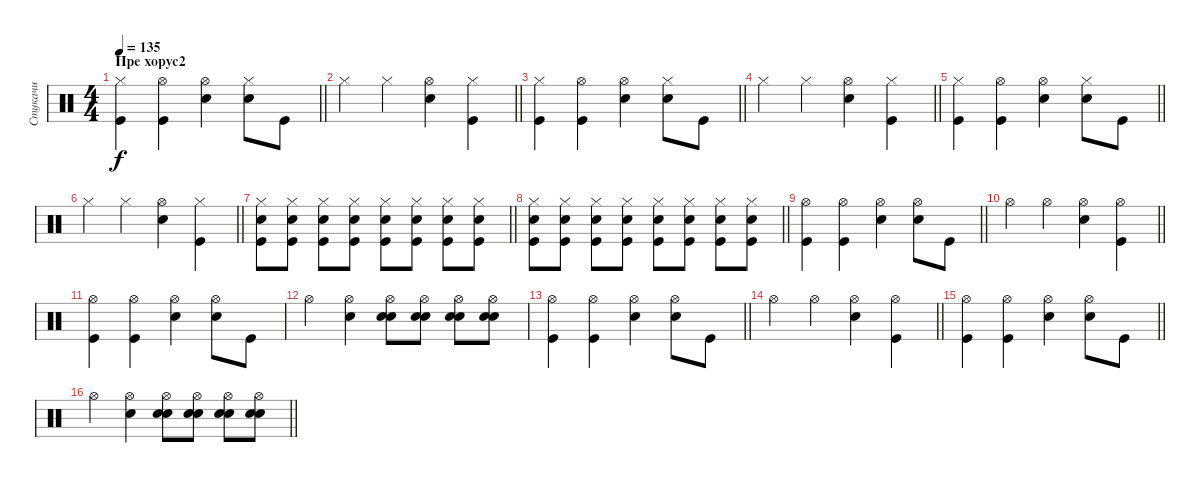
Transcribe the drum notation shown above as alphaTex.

\track ("Стукачи" "Стукачи") {instrument percussion}
\staff {score}
\articulation defaults
\ts (4 4)
\section ("" "Пре хорус2")
\tempo 135
\clef neutral
\barLineRight lightlight
\ks c
("Hi-Hat (closed)" "Kick (hit)").4{dy f} ("Hi-Hat (open)" "Kick (hit)").4 ("Hi-Hat (open)" "Snare (hit) 2").4 ("Hi-Hat (closed)" "Snare (hit) 2").8 "Kick (hit)".8 |
\barLineRight lightlight "Hi-Hat (closed)".4 "Hi-Hat (closed)".4
("Hi-Hat (open)" "Snare (hit) 2").4 ("Hi-Hat (closed)" "Kick (hit)").4 |
\barLineRight lightlight
("Hi-Hat (closed)" "Kick (hit)").4 ("Hi-Hat (open)" "Kick (hit)").4 ("Hi-Hat (open)" "Snare (hit) 2").4 ("Hi-Hat (closed)" "Snare (hit) 2").8 "Kick (hit)".8 |
\barLineRight lightlight "Hi-Hat (closed)".4 "Hi-Hat (closed)".4
("Hi-Hat (open)" "Snare (hit) 2").4 ("Hi-Hat (closed)" "Kick (hit)").4 |
\barLineRight lightlight
("Hi-Hat (closed)" "Kick (hit)").4 ("Hi-Hat (open)" "Kick (hit)").4 ("Hi-Hat (open)" "Snare (hit) 2").4 ("Hi-Hat (closed)" "Snare (hit) 2").8 "Kick (hit)".8 |
\barLineRight lightlight "Hi-Hat (closed)".4{volume 12} "Hi-Hat (closed)".4
("Hi-Hat (open)" "Snare (hit) 2").4 ("Hi-Hat (closed)" "Kick (hit)").4 |
\barLineRight lightlight
("Hi-Hat (closed)" "Snare (hit) 2" "Kick (hit)").8{volume 16} ("Hi-Hat (closed)" "Snare (hit) 2" "Kick (hit)").8 ("Hi-Hat (closed)" "Snare (hit) 2" "Kick (hit)").8 ("Hi-Hat (closed)" "Snare (hit) 2" "Kick (hit)").8 ("Hi-Hat (closed)" "Snare (hit) 2" "Kick (hit)").8 ("Hi-Hat (closed)" "Snare (hit) 2" "Kick (hit)").8 ("Hi-Hat (closed)" "Snare (hit) 2" "Kick (hit)").8 ("Hi-Hat (closed)" "Snare (hit) 2" "Kick (hit)").8 |
\barLineRight lightlight
("Hi-Hat (closed)" "Snare (hit) 2" "Kick (hit)").8 ("Hi-Hat (closed)" "Snare (hit) 2" "Kick (hit)").8 ("Hi-Hat (closed)" "Snare (hit) 2" "Kick (hit)").8 ("Hi-Hat (closed)" "Snare (hit) 2" "Kick (hit)").8 ("Hi-Hat (closed)" "Snare (hit) 2" "Kick (hit)").8 ("Hi-Hat (closed)" "Snare (hit) 2" "Kick (hit)").8 ("Hi-Hat (closed)" "Snare (hit) 2" "Kick (hit)").8 ("Hi-Hat (closed)" "Snare (hit) 2" "Kick (hit)").8 |
\barLineRight lightlight
("Hi-Hat (open)" "Kick (hit)").4{volume 15} ("Hi-Hat (open)" "Kick (hit)").4 ("Hi-Hat (open)" "Snare (hit) 2").4 ("Hi-Hat (open)" "Snare (hit) 2").8 "Kick (hit)".8 |
\barLineRight lightlight "Hi-Hat (open)".4 "Hi-Hat (open)".4
("Hi-Hat (open)" "Snare (hit) 2").4 ("Hi-Hat (open)" "Kick (hit)").4 |
("Hi-Hat (open)" "Kick (hit)").4 ("Hi-Hat (open)" "Kick (hit)").4 ("Hi-Hat (open)" "Snare (hit) 2").4 ("Hi-Hat (open)" "Snare (hit) 2").8 "Kick (hit)".8 |
"Hi-Hat (open)".4 ("Hi-Hat (open)" "Snare (hit) 2").4 ("Hi-Hat (open)" "Snare (hit) 2" "Snare (hit) 2").8 ("Hi-Hat (open)" "Snare (hit) 2" "Snare (hit) 2").8 ("Hi-Hat (open)" "Snare (hit) 2" "Snare (hit) 2").8 ("Hi-Hat (open)" "Snare (hit) 2" "Snare (hit) 2").8 |
\barLineRight lightlight
("Hi-Hat (open)" "Kick (hit)").4 ("Hi-Hat (open)" "Kick (hit)").4 ("Hi-Hat (open)" "Snare (hit) 2").4 ("Hi-Hat (open)" "Snare (hit) 2").8 "Kick (hit)".8 |
\barLineRight lightlight "Hi-Hat (open)".4 "Hi-Hat (open)".4
("Hi-Hat (open)" "Snare (hit) 2").4 ("Hi-Hat (open)" "Kick (hit)").4 |
\barLineRight lightlight
("Hi-Hat (open)" "Kick (hit)").4 ("Hi-Hat (open)" "Kick (hit)").4 ("Hi-Hat (open)" "Snare (hit) 2").4 ("Hi-Hat (open)" "Snare (hit) 2").8 "Kick (hit)".8 |
\barLineRight lightlight "Hi-Hat (open)".4
("Hi-Hat (open)" "Snare (hit) 2").4 ("Hi-Hat (open)" "Snare (hit) 2" "Snare (hit) 2").8 ("Hi-Hat (open)" "Snare (hit) 2" "Snare (hit) 2").8 ("Hi-Hat (open)" "Snare (hit) 2" "Snare (hit) 2").8 ("Hi-Hat (open)" "Snare (hit) 2" "Snare (hit) 2").8
